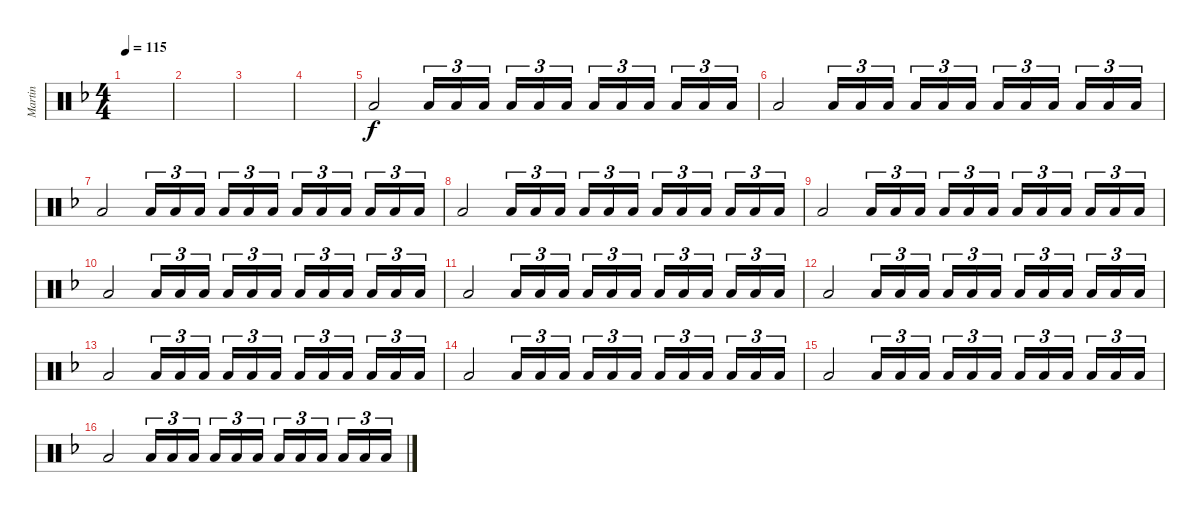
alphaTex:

\track ("Martin" "Martin") {instrument percussion}
\staff {score}
\articulation defaults
\ts (4 4)
\tempo 115
\clef neutral
\ks dminor
|
|
|
|
"Low Floor Tom (hit)".2{volume 8} "Low Floor Tom (hit)".16{tu (3 2)} "Low Floor Tom (hit)".16{tu (3 2)} "Low Floor Tom (hit)".16{tu (3 2) beam splitsecondary} "Low Floor Tom (hit)".16{tu (3 2)} "Low Floor Tom (hit)".16{tu (3 2)} "Low Floor Tom (hit)".16{tu (3 2)} "Low Floor Tom (hit)".16{tu (3 2)} "Low Floor Tom (hit)".16{tu (3 2)} "Low Floor Tom (hit)".16{tu (3 2) beam splitsecondary} "Low Floor Tom (hit)".16{tu (3 2)} "Low Floor Tom (hit)".16{tu (3 2)} "Low Floor Tom (hit)".16{tu (3 2)} |
"Low Floor Tom (hit)".2 "Low Floor Tom (hit)".16{tu (3 2)} "Low Floor Tom (hit)".16{tu (3 2)} "Low Floor Tom (hit)".16{tu (3 2) beam splitsecondary} "Low Floor Tom (hit)".16{tu (3 2)} "Low Floor Tom (hit)".16{tu (3 2)} "Low Floor Tom (hit)".16{tu (3 2)} "Low Floor Tom (hit)".16{tu (3 2)} "Low Floor Tom (hit)".16{tu (3 2)} "Low Floor Tom (hit)".16{tu (3 2) beam splitsecondary} "Low Floor Tom (hit)".16{tu (3 2)} "Low Floor Tom (hit)".16{tu (3 2)} "Low Floor Tom (hit)".16{tu (3 2)} |
"Low Floor Tom (hit)".2 "Low Floor Tom (hit)".16{tu (3 2)} "Low Floor Tom (hit)".16{tu (3 2)} "Low Floor Tom (hit)".16{tu (3 2) beam splitsecondary} "Low Floor Tom (hit)".16{tu (3 2)} "Low Floor Tom (hit)".16{tu (3 2)} "Low Floor Tom (hit)".16{tu (3 2)} "Low Floor Tom (hit)".16{tu (3 2)} "Low Floor Tom (hit)".16{tu (3 2)} "Low Floor Tom (hit)".16{tu (3 2) beam splitsecondary} "Low Floor Tom (hit)".16{tu (3 2)} "Low Floor Tom (hit)".16{tu (3 2)} "Low Floor Tom (hit)".16{tu (3 2)} |
"Low Floor Tom (hit)".2 "Low Floor Tom (hit)".16{tu (3 2)} "Low Floor Tom (hit)".16{tu (3 2)} "Low Floor Tom (hit)".16{tu (3 2) beam splitsecondary} "Low Floor Tom (hit)".16{tu (3 2)} "Low Floor Tom (hit)".16{tu (3 2)} "Low Floor Tom (hit)".16{tu (3 2)} "Low Floor Tom (hit)".16{tu (3 2)} "Low Floor Tom (hit)".16{tu (3 2)} "Low Floor Tom (hit)".16{tu (3 2) beam splitsecondary} "Low Floor Tom (hit)".16{tu (3 2)} "Low Floor Tom (hit)".16{tu (3 2)} "Low Floor Tom (hit)".16{tu (3 2)} |
"Low Floor Tom (hit)".2 "Low Floor Tom (hit)".16{tu (3 2)} "Low Floor Tom (hit)".16{tu (3 2)} "Low Floor Tom (hit)".16{tu (3 2) beam splitsecondary} "Low Floor Tom (hit)".16{tu (3 2)} "Low Floor Tom (hit)".16{tu (3 2)} "Low Floor Tom (hit)".16{tu (3 2)} "Low Floor Tom (hit)".16{tu (3 2)} "Low Floor Tom (hit)".16{tu (3 2)} "Low Floor Tom (hit)".16{tu (3 2) beam splitsecondary} "Low Floor Tom (hit)".16{tu (3 2)} "Low Floor Tom (hit)".16{tu (3 2)} "Low Floor Tom (hit)".16{tu (3 2)} |
"Low Floor Tom (hit)".2 "Low Floor Tom (hit)".16{tu (3 2)} "Low Floor Tom (hit)".16{tu (3 2)} "Low Floor Tom (hit)".16{tu (3 2) beam splitsecondary} "Low Floor Tom (hit)".16{tu (3 2)} "Low Floor Tom (hit)".16{tu (3 2)} "Low Floor Tom (hit)".16{tu (3 2)} "Low Floor Tom (hit)".16{tu (3 2)} "Low Floor Tom (hit)".16{tu (3 2)} "Low Floor Tom (hit)".16{tu (3 2) beam splitsecondary} "Low Floor Tom (hit)".16{tu (3 2)} "Low Floor Tom (hit)".16{tu (3 2)} "Low Floor Tom (hit)".16{tu (3 2)} |
"Low Floor Tom (hit)".2 "Low Floor Tom (hit)".16{tu (3 2)} "Low Floor Tom (hit)".16{tu (3 2)} "Low Floor Tom (hit)".16{tu (3 2) beam splitsecondary} "Low Floor Tom (hit)".16{tu (3 2)} "Low Floor Tom (hit)".16{tu (3 2)} "Low Floor Tom (hit)".16{tu (3 2)} "Low Floor Tom (hit)".16{tu (3 2)} "Low Floor Tom (hit)".16{tu (3 2)} "Low Floor Tom (hit)".16{tu (3 2) beam splitsecondary} "Low Floor Tom (hit)".16{tu (3 2)} "Low Floor Tom (hit)".16{tu (3 2)} "Low Floor Tom (hit)".16{tu (3 2)} |
"Low Floor Tom (hit)".2 "Low Floor Tom (hit)".16{tu (3 2)} "Low Floor Tom (hit)".16{tu (3 2)} "Low Floor Tom (hit)".16{tu (3 2) beam splitsecondary} "Low Floor Tom (hit)".16{tu (3 2)} "Low Floor Tom (hit)".16{tu (3 2)} "Low Floor Tom (hit)".16{tu (3 2)} "Low Floor Tom (hit)".16{tu (3 2)} "Low Floor Tom (hit)".16{tu (3 2)} "Low Floor Tom (hit)".16{tu (3 2) beam splitsecondary} "Low Floor Tom (hit)".16{tu (3 2)} "Low Floor Tom (hit)".16{tu (3 2)} "Low Floor Tom (hit)".16{tu (3 2)} |
"Low Floor Tom (hit)".2 "Low Floor Tom (hit)".16{tu (3 2)} "Low Floor Tom (hit)".16{tu (3 2)} "Low Floor Tom (hit)".16{tu (3 2) beam splitsecondary} "Low Floor Tom (hit)".16{tu (3 2)} "Low Floor Tom (hit)".16{tu (3 2)} "Low Floor Tom (hit)".16{tu (3 2)} "Low Floor Tom (hit)".16{tu (3 2)} "Low Floor Tom (hit)".16{tu (3 2)} "Low Floor Tom (hit)".16{tu (3 2) beam splitsecondary} "Low Floor Tom (hit)".16{tu (3 2)} "Low Floor Tom (hit)".16{tu (3 2)} "Low Floor Tom (hit)".16{tu (3 2)} |
"Low Floor Tom (hit)".2 "Low Floor Tom (hit)".16{tu (3 2)} "Low Floor Tom (hit)".16{tu (3 2)} "Low Floor Tom (hit)".16{tu (3 2) beam splitsecondary} "Low Floor Tom (hit)".16{tu (3 2)} "Low Floor Tom (hit)".16{tu (3 2)} "Low Floor Tom (hit)".16{tu (3 2)} "Low Floor Tom (hit)".16{tu (3 2)} "Low Floor Tom (hit)".16{tu (3 2)} "Low Floor Tom (hit)".16{tu (3 2) beam splitsecondary} "Low Floor Tom (hit)".16{tu (3 2)} "Low Floor Tom (hit)".16{tu (3 2)} "Low Floor Tom (hit)".16{tu (3 2)} |
"Low Floor Tom (hit)".2 "Low Floor Tom (hit)".16{tu (3 2)} "Low Floor Tom (hit)".16{tu (3 2)} "Low Floor Tom (hit)".16{tu (3 2) beam splitsecondary} "Low Floor Tom (hit)".16{tu (3 2)} "Low Floor Tom (hit)".16{tu (3 2)} "Low Floor Tom (hit)".16{tu (3 2)} "Low Floor Tom (hit)".16{tu (3 2)} "Low Floor Tom (hit)".16{tu (3 2)} "Low Floor Tom (hit)".16{tu (3 2) beam splitsecondary} "Low Floor Tom (hit)".16{tu (3 2)} "Low Floor Tom (hit)".16{tu (3 2)} "Low Floor Tom (hit)".16{tu (3 2)} |
"Low Floor Tom (hit)".2 "Low Floor Tom (hit)".16{tu (3 2)} "Low Floor Tom (hit)".16{tu (3 2)} "Low Floor Tom (hit)".16{tu (3 2) beam splitsecondary} "Low Floor Tom (hit)".16{tu (3 2)} "Low Floor Tom (hit)".16{tu (3 2)} "Low Floor Tom (hit)".16{tu (3 2)} "Low Floor Tom (hit)".16{tu (3 2)} "Low Floor Tom (hit)".16{tu (3 2)} "Low Floor Tom (hit)".16{tu (3 2) beam splitsecondary} "Low Floor Tom (hit)".16{tu (3 2)} "Low Floor Tom (hit)".16{tu (3 2)} "Low Floor Tom (hit)".16{tu (3 2)}
